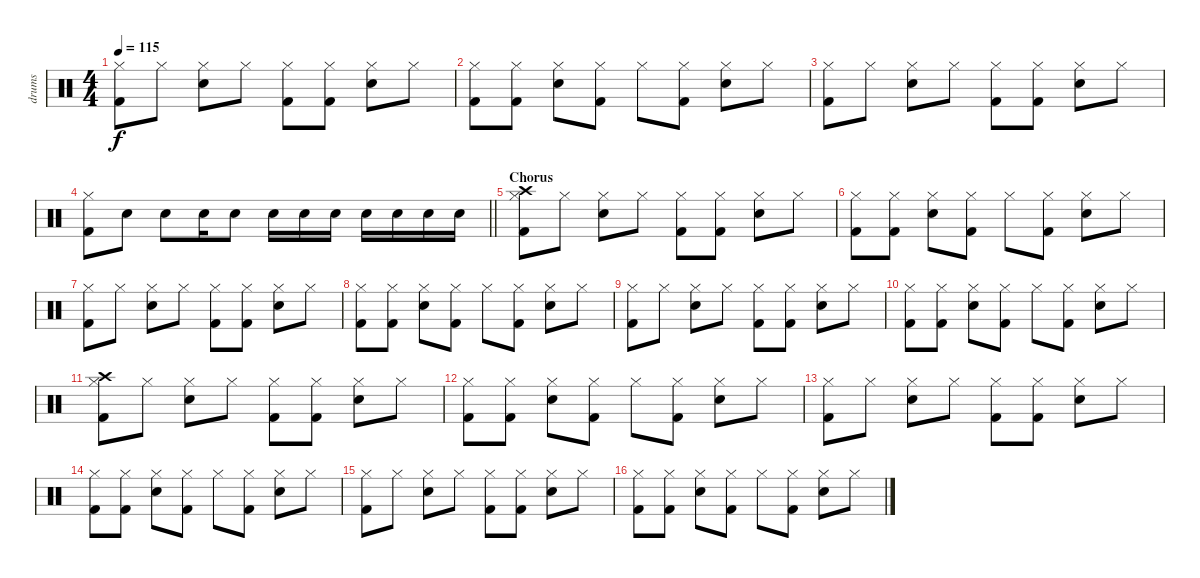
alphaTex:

\track ("drums" "drums") {instrument percussion}
\staff {score}
\articulation defaults
\ts (4 4)
\tempo 115
\clef neutral
\ks c
("Hi-Hat (closed)" "Kick (hit) 2").8{dy f} "Hi-Hat (closed)".8 ("Hi-Hat (closed)" "Electric Snare (hit)").8 "Hi-Hat (closed)".8 ("Hi-Hat (closed)" "Kick (hit) 2").8 ("Hi-Hat (closed)" "Kick (hit) 2").8 ("Hi-Hat (closed)" "Electric Snare (hit)").8 "Hi-Hat (closed)".8 |
("Hi-Hat (closed)" "Kick (hit) 2").8 ("Hi-Hat (closed)" "Kick (hit) 2").8 ("Hi-Hat (closed)" "Electric Snare (hit)").8 ("Hi-Hat (closed)" "Kick (hit) 2").8 "Hi-Hat (closed)".8 ("Hi-Hat (closed)" "Kick (hit) 2").8 ("Hi-Hat (closed)" "Electric Snare (hit)").8 "Hi-Hat (closed)".8 |
("Hi-Hat (closed)" "Kick (hit) 2").8 "Hi-Hat (closed)".8 ("Hi-Hat (closed)" "Electric Snare (hit)").8 "Hi-Hat (closed)".8 ("Hi-Hat (closed)" "Kick (hit) 2").8 ("Hi-Hat (closed)" "Kick (hit) 2").8 ("Hi-Hat (closed)" "Electric Snare (hit)").8 "Hi-Hat (closed)".8 |
\barLineRight lightlight
("Hi-Hat (closed)" "Kick (hit) 2").8 "Electric Snare (hit)".8 "Electric Snare (hit)".8 "Electric Snare (hit)".16 "Electric Snare (hit)".8 "Electric Snare (hit)".16 "Electric Snare (hit)".16 "Electric Snare (hit)".16 "Electric Snare (hit)".16 "Electric Snare (hit)".16 "Electric Snare (hit)".16 "Electric Snare (hit)".16 |
\section ("" "Chorus")
("Hi-Hat (closed)" "Crash high (hit)" "Kick (hit) 2").8 "Hi-Hat (closed)".8 ("Hi-Hat (closed)" "Electric Snare (hit)").8 "Hi-Hat (closed)".8 ("Hi-Hat (closed)" "Kick (hit) 2").8 ("Hi-Hat (closed)" "Kick (hit) 2").8 ("Hi-Hat (closed)" "Electric Snare (hit)").8 "Hi-Hat (closed)".8 |
("Hi-Hat (closed)" "Kick (hit) 2").8 ("Hi-Hat (closed)" "Kick (hit) 2").8 ("Hi-Hat (closed)" "Electric Snare (hit)").8 ("Hi-Hat (closed)" "Kick (hit) 2").8 "Hi-Hat (closed)".8 ("Hi-Hat (closed)" "Kick (hit) 2").8 ("Hi-Hat (closed)" "Electric Snare (hit)").8 "Hi-Hat (closed)".8 |
("Hi-Hat (closed)" "Kick (hit) 2").8 "Hi-Hat (closed)".8 ("Hi-Hat (closed)" "Electric Snare (hit)").8 "Hi-Hat (closed)".8 ("Hi-Hat (closed)" "Kick (hit) 2").8 ("Hi-Hat (closed)" "Kick (hit) 2").8 ("Hi-Hat (closed)" "Electric Snare (hit)").8 "Hi-Hat (closed)".8 |
("Hi-Hat (closed)" "Kick (hit) 2").8 ("Hi-Hat (closed)" "Kick (hit) 2").8 ("Hi-Hat (closed)" "Electric Snare (hit)").8 ("Hi-Hat (closed)" "Kick (hit) 2").8 "Hi-Hat (closed)".8 ("Hi-Hat (closed)" "Kick (hit) 2").8 ("Hi-Hat (closed)" "Electric Snare (hit)").8 "Hi-Hat (closed)".8 |
("Hi-Hat (closed)" "Kick (hit) 2").8 "Hi-Hat (closed)".8 ("Hi-Hat (closed)" "Electric Snare (hit)").8 "Hi-Hat (closed)".8 ("Hi-Hat (closed)" "Kick (hit) 2").8 ("Hi-Hat (closed)" "Kick (hit) 2").8 ("Hi-Hat (closed)" "Electric Snare (hit)").8 "Hi-Hat (closed)".8 |
("Hi-Hat (closed)" "Kick (hit) 2").8 ("Hi-Hat (closed)" "Kick (hit) 2").8 ("Hi-Hat (closed)" "Electric Snare (hit)").8 ("Hi-Hat (closed)" "Kick (hit) 2").8 "Hi-Hat (closed)".8 ("Hi-Hat (closed)" "Kick (hit) 2").8 ("Hi-Hat (closed)" "Electric Snare (hit)").8 "Hi-Hat (closed)".8 |
("Hi-Hat (closed)" "Crash high (hit)" "Kick (hit) 2").8 "Hi-Hat (closed)".8 ("Hi-Hat (closed)" "Electric Snare (hit)").8 "Hi-Hat (closed)".8 ("Hi-Hat (closed)" "Kick (hit) 2").8 ("Hi-Hat (closed)" "Kick (hit) 2").8 ("Hi-Hat (closed)" "Electric Snare (hit)").8 "Hi-Hat (closed)".8 |
("Hi-Hat (closed)" "Kick (hit) 2").8 ("Hi-Hat (closed)" "Kick (hit) 2").8 ("Hi-Hat (closed)" "Electric Snare (hit)").8 ("Hi-Hat (closed)" "Kick (hit) 2").8 "Hi-Hat (closed)".8 ("Hi-Hat (closed)" "Kick (hit) 2").8 ("Hi-Hat (closed)" "Electric Snare (hit)").8 "Hi-Hat (closed)".8 |
("Hi-Hat (closed)" "Kick (hit) 2").8 "Hi-Hat (closed)".8 ("Hi-Hat (closed)" "Electric Snare (hit)").8 "Hi-Hat (closed)".8 ("Hi-Hat (closed)" "Kick (hit) 2").8 ("Hi-Hat (closed)" "Kick (hit) 2").8 ("Hi-Hat (closed)" "Electric Snare (hit)").8 "Hi-Hat (closed)".8 |
("Hi-Hat (closed)" "Kick (hit) 2").8 ("Hi-Hat (closed)" "Kick (hit) 2").8 ("Hi-Hat (closed)" "Electric Snare (hit)").8 ("Hi-Hat (closed)" "Kick (hit) 2").8 "Hi-Hat (closed)".8 ("Hi-Hat (closed)" "Kick (hit) 2").8 ("Hi-Hat (closed)" "Electric Snare (hit)").8 "Hi-Hat (closed)".8 |
("Hi-Hat (closed)" "Kick (hit) 2").8 "Hi-Hat (closed)".8 ("Hi-Hat (closed)" "Electric Snare (hit)").8 "Hi-Hat (closed)".8 ("Hi-Hat (closed)" "Kick (hit) 2").8 ("Hi-Hat (closed)" "Kick (hit) 2").8 ("Hi-Hat (closed)" "Electric Snare (hit)").8 "Hi-Hat (closed)".8 |
("Hi-Hat (closed)" "Kick (hit) 2").8 ("Hi-Hat (closed)" "Kick (hit) 2").8 ("Hi-Hat (closed)" "Electric Snare (hit)").8 ("Hi-Hat (closed)" "Kick (hit) 2").8 "Hi-Hat (closed)".8 ("Hi-Hat (closed)" "Kick (hit) 2").8 ("Hi-Hat (closed)" "Electric Snare (hit)").8 "Hi-Hat (closed)".8
